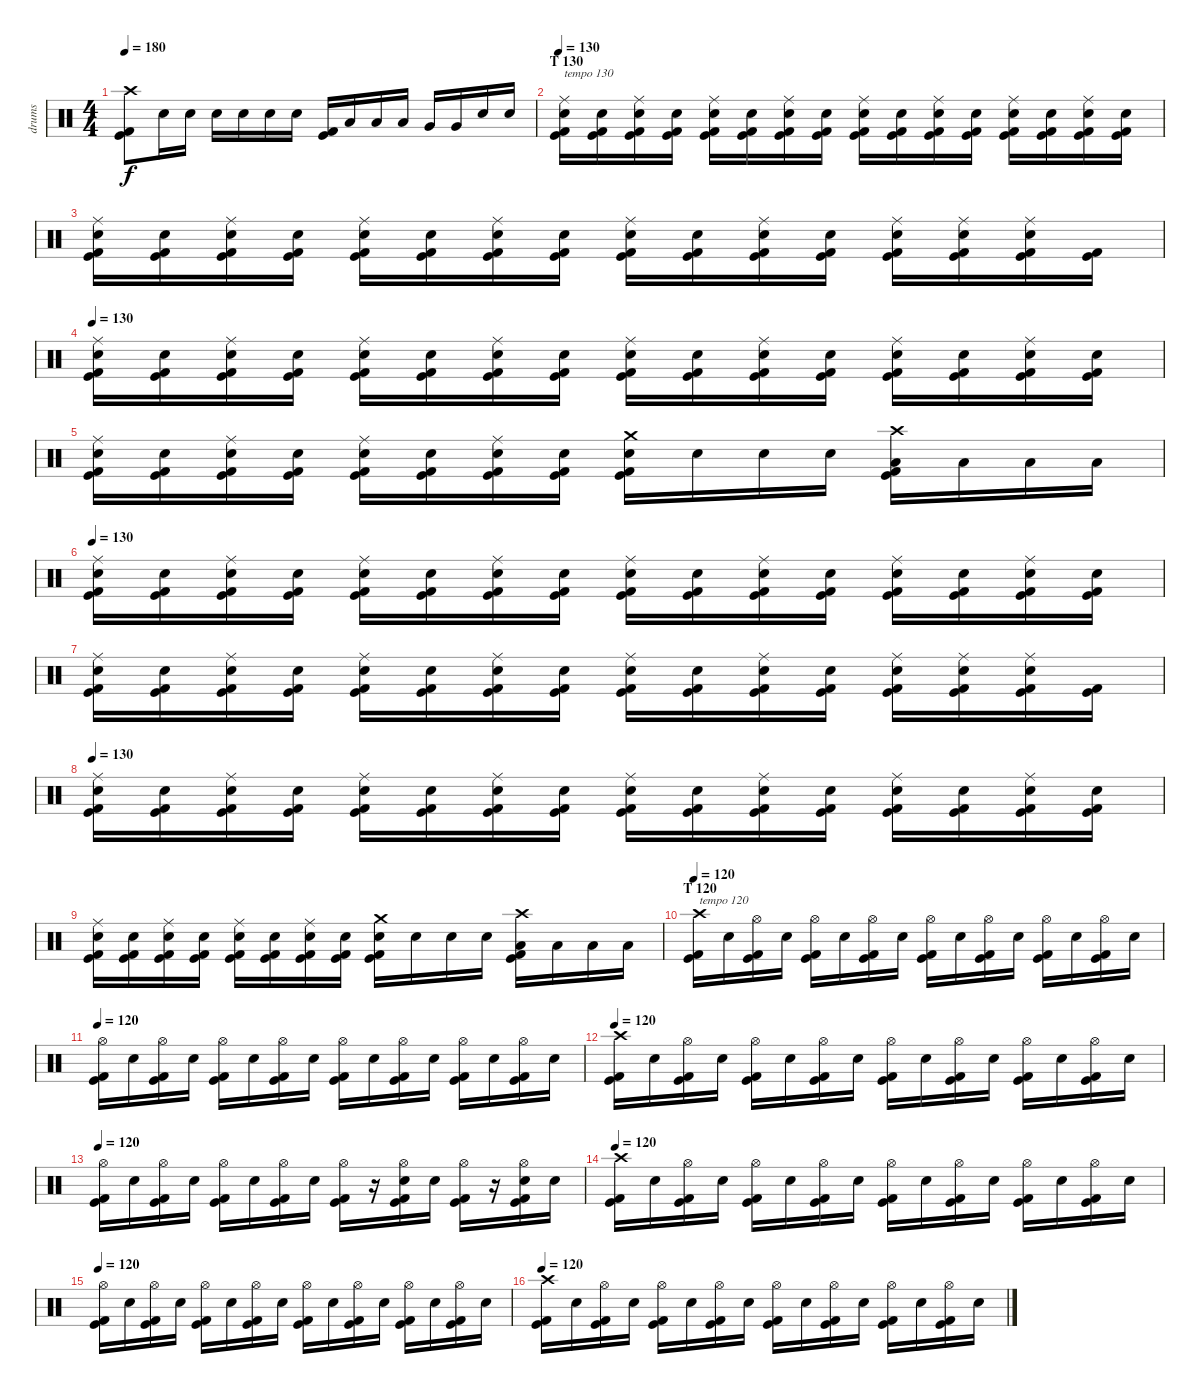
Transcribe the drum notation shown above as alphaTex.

\track ("drums" "drums") {instrument percussion}
\staff {score}
\articulation defaults
\ts (4 4)
\tempo 180
\clef neutral
\ks c
("Crash high (hit)" "Kick (hit) 2" "Kick (hit)").8{dy f} "Electric Snare (hit)".16 "Electric Snare (hit)".16 "Electric Snare (hit)".16 "Electric Snare (hit)".16 "Electric Snare (hit)".16 "Electric Snare (hit)".16 ("Kick (hit) 2" "Kick (hit)").16 "Low Tom (hit)".16 "Low Tom (hit)".16 "Low Tom (hit)".16 "Very Low Tom (hit)".16 "Very Low Tom (hit)".16 "Electric Snare (hit)".16 "Electric Snare (hit)".16 |
\section ("" "T 130")
\tempo 130
("Ride (middle)" "Electric Snare (hit)" "Kick (hit) 2" "Kick (hit)").16{txt "tempo 130"} ("Electric Snare (hit)" "Kick (hit) 2" "Kick (hit)").16 ("Ride (middle)" "Electric Snare (hit)" "Kick (hit) 2" "Kick (hit)").16 ("Electric Snare (hit)" "Kick (hit) 2" "Kick (hit)").16 ("Ride (middle)" "Electric Snare (hit)" "Kick (hit) 2" "Kick (hit)").16 ("Electric Snare (hit)" "Kick (hit) 2" "Kick (hit)").16 ("Ride (middle)" "Electric Snare (hit)" "Kick (hit) 2" "Kick (hit)").16 ("Electric Snare (hit)" "Kick (hit) 2" "Kick (hit)").16 ("Ride (middle)" "Electric Snare (hit)" "Kick (hit) 2" "Kick (hit)").16 ("Electric Snare (hit)" "Kick (hit) 2" "Kick (hit)").16 ("Ride (middle)" "Electric Snare (hit)" "Kick (hit) 2" "Kick (hit)").16 ("Electric Snare (hit)" "Kick (hit) 2" "Kick (hit)").16 ("Ride (middle)" "Electric Snare (hit)" "Kick (hit) 2" "Kick (hit)").16 ("Electric Snare (hit)" "Kick (hit) 2" "Kick (hit)").16 ("Ride (middle)" "Electric Snare (hit)" "Kick (hit) 2" "Kick (hit)").16 ("Electric Snare (hit)" "Kick (hit) 2" "Kick (hit)").16 |
("Ride (middle)" "Electric Snare (hit)" "Kick (hit) 2" "Kick (hit)").16 ("Electric Snare (hit)" "Kick (hit) 2" "Kick (hit)").16 ("Ride (middle)" "Electric Snare (hit)" "Kick (hit) 2" "Kick (hit)").16 ("Electric Snare (hit)" "Kick (hit) 2" "Kick (hit)").16 ("Ride (middle)" "Electric Snare (hit)" "Kick (hit) 2" "Kick (hit)").16 ("Electric Snare (hit)" "Kick (hit) 2" "Kick (hit)").16 ("Ride (middle)" "Electric Snare (hit)" "Kick (hit) 2" "Kick (hit)").16 ("Electric Snare (hit)" "Kick (hit) 2" "Kick (hit)").16 ("Ride (middle)" "Electric Snare (hit)" "Kick (hit) 2" "Kick (hit)").16 ("Electric Snare (hit)" "Kick (hit) 2" "Kick (hit)").16 ("Ride (middle)" "Electric Snare (hit)" "Kick (hit) 2" "Kick (hit)").16 ("Electric Snare (hit)" "Kick (hit) 2" "Kick (hit)").16 ("Ride (middle)" "Electric Snare (hit)" "Kick (hit) 2" "Kick (hit)").16 ("Ride (middle)" "Electric Snare (hit)" "Kick (hit) 2" "Kick (hit)").16 ("Ride (middle)" "Electric Snare (hit)" "Kick (hit) 2" "Kick (hit)").16 ("Kick (hit) 2" "Kick (hit)").16 |
\tempo 130
("Ride (middle)" "Electric Snare (hit)" "Kick (hit) 2" "Kick (hit)").16 ("Electric Snare (hit)" "Kick (hit) 2" "Kick (hit)").16 ("Ride (middle)" "Electric Snare (hit)" "Kick (hit) 2" "Kick (hit)").16 ("Electric Snare (hit)" "Kick (hit) 2" "Kick (hit)").16 ("Ride (middle)" "Electric Snare (hit)" "Kick (hit) 2" "Kick (hit)").16 ("Electric Snare (hit)" "Kick (hit) 2" "Kick (hit)").16 ("Ride (middle)" "Electric Snare (hit)" "Kick (hit) 2" "Kick (hit)").16 ("Electric Snare (hit)" "Kick (hit) 2" "Kick (hit)").16 ("Ride (middle)" "Electric Snare (hit)" "Kick (hit) 2" "Kick (hit)").16 ("Electric Snare (hit)" "Kick (hit) 2" "Kick (hit)").16 ("Ride (middle)" "Electric Snare (hit)" "Kick (hit) 2" "Kick (hit)").16 ("Electric Snare (hit)" "Kick (hit) 2" "Kick (hit)").16 ("Ride (middle)" "Electric Snare (hit)" "Kick (hit) 2" "Kick (hit)").16 ("Electric Snare (hit)" "Kick (hit) 2" "Kick (hit)").16 ("Ride (middle)" "Electric Snare (hit)" "Kick (hit) 2" "Kick (hit)").16 ("Electric Snare (hit)" "Kick (hit) 2" "Kick (hit)").16 |
("Ride (middle)" "Electric Snare (hit)" "Kick (hit) 2" "Kick (hit)").16 ("Electric Snare (hit)" "Kick (hit) 2" "Kick (hit)").16 ("Ride (middle)" "Electric Snare (hit)" "Kick (hit) 2" "Kick (hit)").16 ("Electric Snare (hit)" "Kick (hit) 2" "Kick (hit)").16 ("Ride (middle)" "Electric Snare (hit)" "Kick (hit) 2" "Kick (hit)").16 ("Electric Snare (hit)" "Kick (hit) 2" "Kick (hit)").16 ("Ride (middle)" "Electric Snare (hit)" "Kick (hit) 2" "Kick (hit)").16 ("Electric Snare (hit)" "Kick (hit) 2" "Kick (hit)").16 ("Crash medium (hit)" "Electric Snare (hit)" "Kick (hit) 2" "Kick (hit)").16 "Electric Snare (hit)".16 "Electric Snare (hit)".16 "Electric Snare (hit)".16 ("Crash high (hit)" "Low Tom (hit)" "Kick (hit) 2" "Kick (hit)").16 "Low Tom (hit)".16 "Low Floor Tom (hit)".16 "Low Floor Tom (hit)".16 |
\tempo 130
("Ride (middle)" "Electric Snare (hit)" "Kick (hit) 2" "Kick (hit)").16 ("Electric Snare (hit)" "Kick (hit) 2" "Kick (hit)").16 ("Ride (middle)" "Electric Snare (hit)" "Kick (hit) 2" "Kick (hit)").16 ("Electric Snare (hit)" "Kick (hit) 2" "Kick (hit)").16 ("Ride (middle)" "Electric Snare (hit)" "Kick (hit) 2" "Kick (hit)").16 ("Electric Snare (hit)" "Kick (hit) 2" "Kick (hit)").16 ("Ride (middle)" "Electric Snare (hit)" "Kick (hit) 2" "Kick (hit)").16 ("Electric Snare (hit)" "Kick (hit) 2" "Kick (hit)").16 ("Ride (middle)" "Electric Snare (hit)" "Kick (hit) 2" "Kick (hit)").16 ("Electric Snare (hit)" "Kick (hit) 2" "Kick (hit)").16 ("Ride (middle)" "Electric Snare (hit)" "Kick (hit) 2" "Kick (hit)").16 ("Electric Snare (hit)" "Kick (hit) 2" "Kick (hit)").16 ("Ride (middle)" "Electric Snare (hit)" "Kick (hit) 2" "Kick (hit)").16 ("Electric Snare (hit)" "Kick (hit) 2" "Kick (hit)").16 ("Ride (middle)" "Electric Snare (hit)" "Kick (hit) 2" "Kick (hit)").16 ("Electric Snare (hit)" "Kick (hit) 2" "Kick (hit)").16 |
("Ride (middle)" "Electric Snare (hit)" "Kick (hit) 2" "Kick (hit)").16 ("Electric Snare (hit)" "Kick (hit) 2" "Kick (hit)").16 ("Ride (middle)" "Electric Snare (hit)" "Kick (hit) 2" "Kick (hit)").16 ("Electric Snare (hit)" "Kick (hit) 2" "Kick (hit)").16 ("Ride (middle)" "Electric Snare (hit)" "Kick (hit) 2" "Kick (hit)").16 ("Electric Snare (hit)" "Kick (hit) 2" "Kick (hit)").16 ("Ride (middle)" "Electric Snare (hit)" "Kick (hit) 2" "Kick (hit)").16 ("Electric Snare (hit)" "Kick (hit) 2" "Kick (hit)").16 ("Ride (middle)" "Electric Snare (hit)" "Kick (hit) 2" "Kick (hit)").16 ("Electric Snare (hit)" "Kick (hit) 2" "Kick (hit)").16 ("Ride (middle)" "Electric Snare (hit)" "Kick (hit) 2" "Kick (hit)").16 ("Electric Snare (hit)" "Kick (hit) 2" "Kick (hit)").16 ("Ride (middle)" "Electric Snare (hit)" "Kick (hit) 2" "Kick (hit)").16 ("Ride (middle)" "Electric Snare (hit)" "Kick (hit) 2" "Kick (hit)").16 ("Ride (middle)" "Electric Snare (hit)" "Kick (hit) 2" "Kick (hit)").16 ("Kick (hit) 2" "Kick (hit)").16 |
\tempo 130
("Ride (middle)" "Electric Snare (hit)" "Kick (hit) 2" "Kick (hit)").16 ("Electric Snare (hit)" "Kick (hit) 2" "Kick (hit)").16 ("Ride (middle)" "Electric Snare (hit)" "Kick (hit) 2" "Kick (hit)").16 ("Electric Snare (hit)" "Kick (hit) 2" "Kick (hit)").16 ("Ride (middle)" "Electric Snare (hit)" "Kick (hit) 2" "Kick (hit)").16 ("Electric Snare (hit)" "Kick (hit) 2" "Kick (hit)").16 ("Ride (middle)" "Electric Snare (hit)" "Kick (hit) 2" "Kick (hit)").16 ("Electric Snare (hit)" "Kick (hit) 2" "Kick (hit)").16 ("Ride (middle)" "Electric Snare (hit)" "Kick (hit) 2" "Kick (hit)").16 ("Electric Snare (hit)" "Kick (hit) 2" "Kick (hit)").16 ("Ride (middle)" "Electric Snare (hit)" "Kick (hit) 2" "Kick (hit)").16 ("Electric Snare (hit)" "Kick (hit) 2" "Kick (hit)").16 ("Ride (middle)" "Electric Snare (hit)" "Kick (hit) 2" "Kick (hit)").16 ("Electric Snare (hit)" "Kick (hit) 2" "Kick (hit)").16 ("Ride (middle)" "Electric Snare (hit)" "Kick (hit) 2" "Kick (hit)").16 ("Electric Snare (hit)" "Kick (hit) 2" "Kick (hit)").16 |
("Ride (middle)" "Electric Snare (hit)" "Kick (hit) 2" "Kick (hit)").16 ("Electric Snare (hit)" "Kick (hit) 2" "Kick (hit)").16 ("Ride (middle)" "Electric Snare (hit)" "Kick (hit) 2" "Kick (hit)").16 ("Electric Snare (hit)" "Kick (hit) 2" "Kick (hit)").16 ("Ride (middle)" "Electric Snare (hit)" "Kick (hit) 2" "Kick (hit)").16 ("Electric Snare (hit)" "Kick (hit) 2" "Kick (hit)").16 ("Ride (middle)" "Electric Snare (hit)" "Kick (hit) 2" "Kick (hit)").16 ("Electric Snare (hit)" "Kick (hit) 2" "Kick (hit)").16 ("Crash medium (hit)" "Electric Snare (hit)" "Kick (hit) 2" "Kick (hit)").16 "Electric Snare (hit)".16 "Electric Snare (hit)".16 "Electric Snare (hit)".16 ("Crash high (hit)" "Low Tom (hit)" "Kick (hit) 2" "Kick (hit)").16 "Low Tom (hit)".16 "Low Floor Tom (hit)".16 "Low Floor Tom (hit)".16 |
\section ("" "T 120")
\tempo 120
("Crash high (hit)" "Kick (hit) 2" "Kick (hit)").16{txt "tempo 120"} "Electric Snare (hit)".16 ("Hi-Hat (open)" "Kick (hit) 2" "Kick (hit)").16 "Electric Snare (hit)".16 ("Hi-Hat (open)" "Kick (hit) 2" "Kick (hit)").16 "Electric Snare (hit)".16 ("Hi-Hat (open)" "Kick (hit) 2" "Kick (hit)").16 "Electric Snare (hit)".16 ("Hi-Hat (open)" "Kick (hit) 2" "Kick (hit)").16 "Electric Snare (hit)".16 ("Hi-Hat (open)" "Kick (hit) 2" "Kick (hit)").16 "Electric Snare (hit)".16 ("Hi-Hat (open)" "Kick (hit) 2" "Kick (hit)").16 "Electric Snare (hit)".16 ("Hi-Hat (open)" "Kick (hit) 2" "Kick (hit)").16 "Electric Snare (hit)".16 |
\tempo 120
("Hi-Hat (open)" "Kick (hit) 2" "Kick (hit)").16 "Electric Snare (hit)".16 ("Hi-Hat (open)" "Kick (hit) 2" "Kick (hit)").16 "Electric Snare (hit)".16 ("Hi-Hat (open)" "Kick (hit) 2" "Kick (hit)").16 "Electric Snare (hit)".16 ("Hi-Hat (open)" "Kick (hit) 2" "Kick (hit)").16 "Electric Snare (hit)".16 ("Hi-Hat (open)" "Kick (hit) 2" "Kick (hit)").16 "Electric Snare (hit)".16 ("Hi-Hat (open)" "Kick (hit) 2" "Kick (hit)").16 "Electric Snare (hit)".16 ("Hi-Hat (open)" "Kick (hit) 2" "Kick (hit)").16 "Electric Snare (hit)".16 ("Hi-Hat (open)" "Kick (hit) 2" "Kick (hit)").16 "Electric Snare (hit)".16 |
\tempo 120
("Crash high (hit)" "Kick (hit) 2" "Kick (hit)").16 "Electric Snare (hit)".16 ("Hi-Hat (open)" "Kick (hit) 2" "Kick (hit)").16 "Electric Snare (hit)".16 ("Hi-Hat (open)" "Kick (hit) 2" "Kick (hit)").16 "Electric Snare (hit)".16 ("Hi-Hat (open)" "Kick (hit) 2" "Kick (hit)").16 "Electric Snare (hit)".16 ("Hi-Hat (open)" "Kick (hit) 2" "Kick (hit)").16 "Electric Snare (hit)".16 ("Hi-Hat (open)" "Kick (hit) 2" "Kick (hit)").16 "Electric Snare (hit)".16 ("Hi-Hat (open)" "Kick (hit) 2" "Kick (hit)").16 "Electric Snare (hit)".16 ("Hi-Hat (open)" "Kick (hit) 2" "Kick (hit)").16 "Electric Snare (hit)".16 |
\tempo 120
("Hi-Hat (open)" "Kick (hit) 2" "Kick (hit)").16 "Electric Snare (hit)".16 ("Hi-Hat (open)" "Kick (hit) 2" "Kick (hit)").16 "Electric Snare (hit)".16 ("Hi-Hat (open)" "Kick (hit) 2" "Kick (hit)").16 "Electric Snare (hit)".16 ("Hi-Hat (open)" "Kick (hit) 2" "Kick (hit)").16 "Electric Snare (hit)".16 ("Hi-Hat (open)" "Kick (hit) 2" "Kick (hit)").16 r.16 ("Hi-Hat (open)" "Electric Snare (hit)" "Kick (hit) 2" "Kick (hit)").16 "Electric Snare (hit)".16 ("Hi-Hat (open)" "Kick (hit) 2" "Kick (hit)").16 r.16 ("Hi-Hat (open)" "Electric Snare (hit)" "Kick (hit) 2" "Kick (hit)").16 "Electric Snare (hit)".16 |
\tempo 120
("Crash high (hit)" "Kick (hit) 2" "Kick (hit)").16 "Electric Snare (hit)".16 ("Hi-Hat (open)" "Kick (hit) 2" "Kick (hit)").16 "Electric Snare (hit)".16 ("Hi-Hat (open)" "Kick (hit) 2" "Kick (hit)").16 "Electric Snare (hit)".16 ("Hi-Hat (open)" "Kick (hit) 2" "Kick (hit)").16 "Electric Snare (hit)".16 ("Hi-Hat (open)" "Kick (hit) 2" "Kick (hit)").16 "Electric Snare (hit)".16 ("Hi-Hat (open)" "Kick (hit) 2" "Kick (hit)").16 "Electric Snare (hit)".16 ("Hi-Hat (open)" "Kick (hit) 2" "Kick (hit)").16 "Electric Snare (hit)".16 ("Hi-Hat (open)" "Kick (hit) 2" "Kick (hit)").16 "Electric Snare (hit)".16 |
\tempo 120
("Hi-Hat (open)" "Kick (hit) 2" "Kick (hit)").16 "Electric Snare (hit)".16 ("Hi-Hat (open)" "Kick (hit) 2" "Kick (hit)").16 "Electric Snare (hit)".16 ("Hi-Hat (open)" "Kick (hit) 2" "Kick (hit)").16 "Electric Snare (hit)".16 ("Hi-Hat (open)" "Kick (hit) 2" "Kick (hit)").16 "Electric Snare (hit)".16 ("Hi-Hat (open)" "Kick (hit) 2" "Kick (hit)").16 "Electric Snare (hit)".16 ("Hi-Hat (open)" "Kick (hit) 2" "Kick (hit)").16 "Electric Snare (hit)".16 ("Hi-Hat (open)" "Kick (hit) 2" "Kick (hit)").16 "Electric Snare (hit)".16 ("Hi-Hat (open)" "Kick (hit) 2" "Kick (hit)").16 "Electric Snare (hit)".16 |
\tempo 120
("Crash high (hit)" "Kick (hit) 2" "Kick (hit)").16 "Electric Snare (hit)".16 ("Hi-Hat (open)" "Kick (hit) 2" "Kick (hit)").16 "Electric Snare (hit)".16 ("Hi-Hat (open)" "Kick (hit) 2" "Kick (hit)").16 "Electric Snare (hit)".16 ("Hi-Hat (open)" "Kick (hit) 2" "Kick (hit)").16 "Electric Snare (hit)".16 ("Hi-Hat (open)" "Kick (hit) 2" "Kick (hit)").16 "Electric Snare (hit)".16 ("Hi-Hat (open)" "Kick (hit) 2" "Kick (hit)").16 "Electric Snare (hit)".16 ("Hi-Hat (open)" "Kick (hit) 2" "Kick (hit)").16 "Electric Snare (hit)".16 ("Hi-Hat (open)" "Kick (hit) 2" "Kick (hit)").16 "Electric Snare (hit)".16
